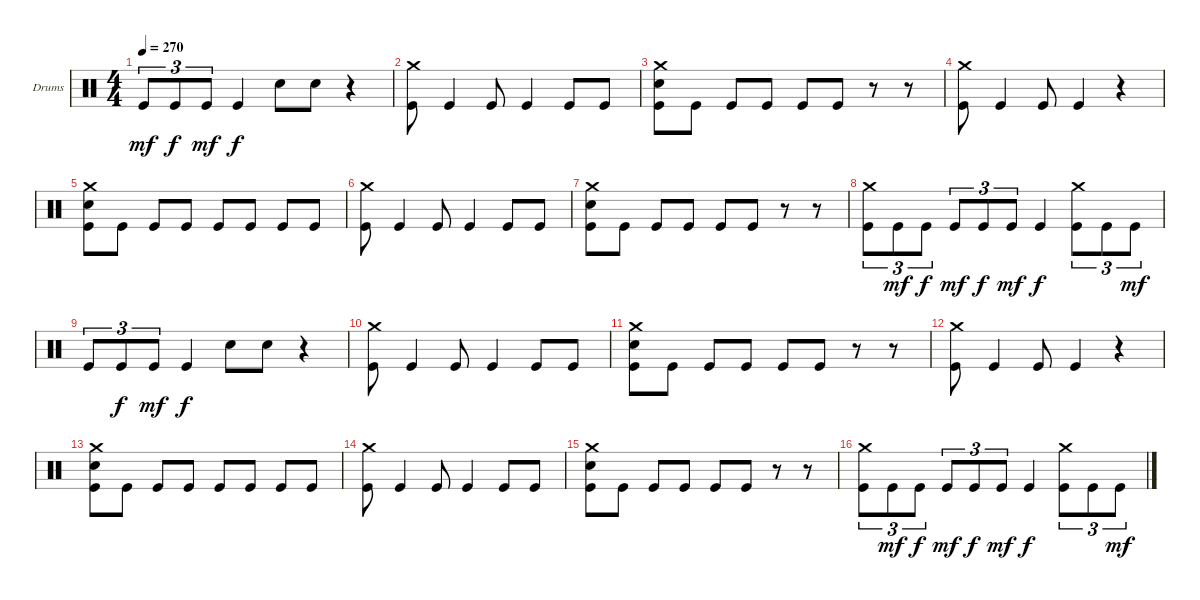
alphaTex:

\bracketExtendMode groupsimilarinstruments
\firstSystemTrackNameOrientation horizontal
\otherSystemsTrackNameOrientation horizontal
\track ("Drumkit" "Drums") {instrument percussion}
\staff {score}
\articulation defaults
\ts (4 4)
\tempo 270
\clef neutral
\ks c "Kick (hit)".8{tu (3 2) dy mf} "Kick (hit)".8{tu (3 2) dy f} "Kick (hit)".8{tu (3 2) dy mf} "Kick (hit)".4{dy f} "Snare (hit) 2".8 "Snare (hit) 2".8
r.4 |
("Crash medium (hit)" "Kick (hit)").8 "Kick (hit)".4 "Kick (hit)".8 "Kick (hit)".4 "Kick (hit)".8 "Kick (hit)".8 |
("Crash medium (hit)" "Snare (hit) 2" "Kick (hit)").8 "Kick (hit)".8 "Kick (hit)".8 "Kick (hit)".8 "Kick (hit)".8 "Kick (hit)".8 r.8 r.8 |
("Crash medium (hit)" "Kick (hit)").8 "Kick (hit)".4 "Kick (hit)".8 "Kick (hit)".4 r.4 |
("Crash medium (hit)" "Snare (hit) 2" "Kick (hit)").8 "Kick (hit)".8 "Kick (hit)".8 "Kick (hit)".8 "Kick (hit)".8 "Kick (hit)".8 "Kick (hit)".8 "Kick (hit)".8 |
("Crash medium (hit)" "Kick (hit)").8 "Kick (hit)".4 "Kick (hit)".8 "Kick (hit)".4 "Kick (hit)".8 "Kick (hit)".8 |
("Crash medium (hit)" "Snare (hit) 2" "Kick (hit)").8 "Kick (hit)".8 "Kick (hit)".8 "Kick (hit)".8 "Kick (hit)".8 "Kick (hit)".8 r.8 r.8 |
("Crash medium (hit)" "Kick (hit)").8{tu (3 2)} "Kick (hit)".8{tu (3 2) dy mf} "Kick (hit)".8{tu (3 2) dy f} "Kick (hit)".8{tu (3 2) dy mf} "Kick (hit)".8{tu (3 2) dy f} "Kick (hit)".8{tu (3 2) dy mf} "Kick (hit)".4{dy f} ("Crash medium (hit)" "Kick (hit)").8{tu (3 2)} "Kick (hit)".8{tu (3 2)} "Kick (hit)".8{tu (3 2) dy mf} |
"Kick (hit)".8{tu (3 2)} "Kick (hit)".8{tu (3 2) dy f} "Kick (hit)".8{tu (3 2) dy mf} "Kick (hit)".4{dy f} "Snare (hit) 2".8 "Snare (hit) 2".8 r.4 |
("Crash medium (hit)" "Kick (hit)").8 "Kick (hit)".4 "Kick (hit)".8 "Kick (hit)".4 "Kick (hit)".8 "Kick (hit)".8 |
("Crash medium (hit)" "Snare (hit) 2" "Kick (hit)").8 "Kick (hit)".8 "Kick (hit)".8 "Kick (hit)".8 "Kick (hit)".8 "Kick (hit)".8 r.8 r.8 |
("Crash medium (hit)" "Kick (hit)").8 "Kick (hit)".4 "Kick (hit)".8 "Kick (hit)".4 r.4 |
("Crash medium (hit)" "Snare (hit) 2" "Kick (hit)").8 "Kick (hit)".8 "Kick (hit)".8 "Kick (hit)".8 "Kick (hit)".8 "Kick (hit)".8 "Kick (hit)".8 "Kick (hit)".8 |
("Crash medium (hit)" "Kick (hit)").8 "Kick (hit)".4 "Kick (hit)".8 "Kick (hit)".4 "Kick (hit)".8 "Kick (hit)".8 |
("Crash medium (hit)" "Snare (hit) 2" "Kick (hit)").8 "Kick (hit)".8 "Kick (hit)".8 "Kick (hit)".8 "Kick (hit)".8 "Kick (hit)".8 r.8 r.8 |
("Crash medium (hit)" "Kick (hit)").8{tu (3 2)} "Kick (hit)".8{tu (3 2) dy mf} "Kick (hit)".8{tu (3 2) dy f} "Kick (hit)".8{tu (3 2) dy mf} "Kick (hit)".8{tu (3 2) dy f} "Kick (hit)".8{tu (3 2) dy mf} "Kick (hit)".4{dy f} ("Crash medium (hit)" "Kick (hit)").8{tu (3 2)} "Kick (hit)".8{tu (3 2)} "Kick (hit)".8{tu (3 2) dy mf}
